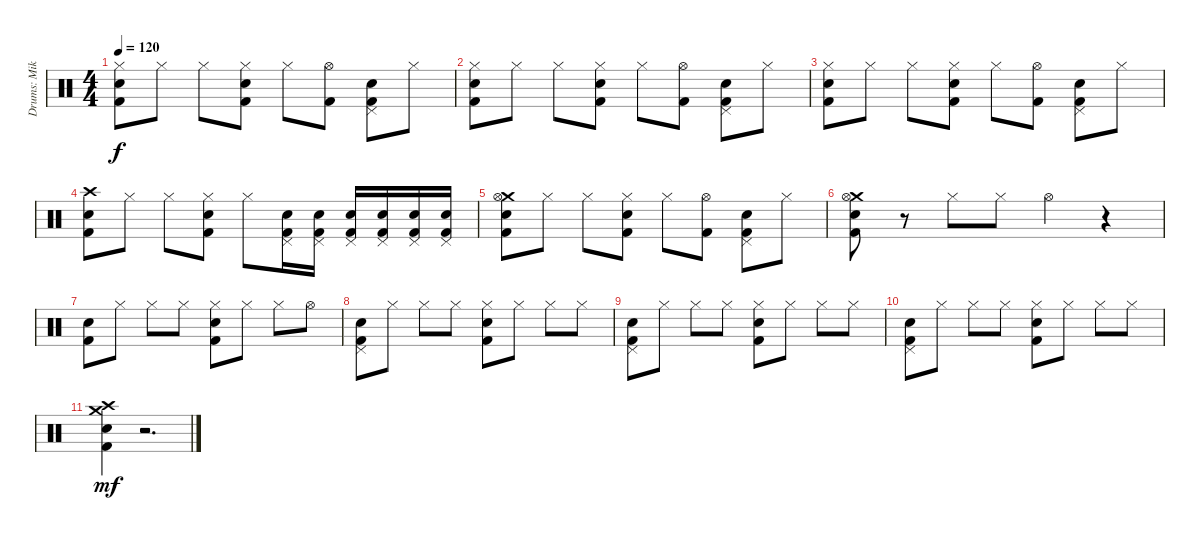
\track ("Drums: Mike Botts" "Drums: Mik") {instrument percussion}
\staff {score}
\articulation defaults
\ts (4 4)
\tempo 120
\clef neutral
\ks c
("Hi-Hat (closed)" "Snare (hit) 2" "Kick (hit) 2").8{dy f} "Hi-Hat (closed)".8 "Hi-Hat (closed)".8 ("Hi-Hat (closed)" "Snare (hit) 2" "Kick (hit) 2").8 "Hi-Hat (closed)".8 ("Hi-Hat (open)" "Kick (hit) 2").8 ("Pedal Hi-Hat (hit)" "Snare (hit) 2" "Kick (hit) 2").8 "Hi-Hat (closed)".8 |
("Hi-Hat (closed)" "Snare (hit) 2" "Kick (hit) 2").8 "Hi-Hat (closed)".8 "Hi-Hat (closed)".8 ("Hi-Hat (closed)" "Snare (hit) 2" "Kick (hit) 2").8 "Hi-Hat (closed)".8 ("Hi-Hat (open)" "Kick (hit) 2").8 ("Pedal Hi-Hat (hit)" "Snare (hit) 2" "Kick (hit) 2").8 "Hi-Hat (closed)".8 |
("Hi-Hat (closed)" "Snare (hit) 2" "Kick (hit) 2").8 "Hi-Hat (closed)".8 "Hi-Hat (closed)".8 ("Hi-Hat (closed)" "Snare (hit) 2" "Kick (hit) 2").8 "Hi-Hat (closed)".8 ("Hi-Hat (open)" "Kick (hit) 2").8 ("Pedal Hi-Hat (hit)" "Snare (hit) 2" "Kick (hit) 2").8 "Hi-Hat (closed)".8 |
("Crash high (hit)" "Snare (hit) 2" "Kick (hit) 2").8 "Hi-Hat (closed)".8 "Hi-Hat (closed)".8 ("Hi-Hat (closed)" "Snare (hit) 2" "Kick (hit) 2").8 "Hi-Hat (closed)".8 ("Pedal Hi-Hat (hit)" "Snare (hit) 2" "Kick (hit) 2").16 ("Pedal Hi-Hat (hit)" "Snare (hit) 2" "Kick (hit) 2").16 ("Pedal Hi-Hat (hit)" "Snare (hit) 2" "Kick (hit) 2").16 ("Pedal Hi-Hat (hit)" "Snare (hit) 2" "Kick (hit) 2").16 ("Pedal Hi-Hat (hit)" "Snare (hit) 2" "Kick (hit) 2").16 ("Pedal Hi-Hat (hit)" "Snare (hit) 2" "Kick (hit) 2").16 |
("Crash medium (hit)" "Hi-Hat (open)" "Snare (hit) 2" "Kick (hit) 2").8 "Hi-Hat (closed)".8 "Hi-Hat (closed)".8 ("Hi-Hat (closed)" "Snare (hit) 2" "Kick (hit) 2").8 "Hi-Hat (closed)".8 ("Hi-Hat (open)" "Kick (hit) 2").8 ("Pedal Hi-Hat (hit)" "Snare (hit) 2" "Kick (hit) 2").8 "Hi-Hat (closed)".8 |
("Crash medium (hit)" "Hi-Hat (open)" "Snare (hit) 2" "Kick (hit) 2").8 r.8 "Hi-Hat (closed)".8 "Hi-Hat (closed)".8 "Hi-Hat (open)".4 r.4 |
("Snare (hit) 2" "Kick (hit) 2").8 "Hi-Hat (closed)".8 "Hi-Hat (closed)".8 "Hi-Hat (closed)".8 ("Hi-Hat (closed)" "Electric Snare (hit)" "Kick (hit) 2").8 "Hi-Hat (closed)".8 "Hi-Hat (closed)".8 "Hi-Hat (open)".8 |
("Pedal Hi-Hat (hit)" "Snare (hit) 2" "Kick (hit) 2").8 "Hi-Hat (closed)".8 "Hi-Hat (closed)".8 "Hi-Hat (closed)".8 ("Hi-Hat (closed)" "Electric Snare (hit)" "Kick (hit) 2").8 "Hi-Hat (closed)".8 "Hi-Hat (closed)".8 "Hi-Hat (closed)".8 |
("Pedal Hi-Hat (hit)" "Snare (hit) 2" "Kick (hit) 2").8 "Hi-Hat (closed)".8 "Hi-Hat (closed)".8 "Hi-Hat (closed)".8 ("Hi-Hat (closed)" "Electric Snare (hit)" "Kick (hit) 2").8 "Hi-Hat (closed)".8 "Hi-Hat (closed)".8 "Hi-Hat (closed)".8 |
("Pedal Hi-Hat (hit)" "Snare (hit) 2" "Kick (hit) 2").8 "Hi-Hat (closed)".8 "Hi-Hat (closed)".8 "Hi-Hat (closed)".8 ("Hi-Hat (closed)" "Electric Snare (hit)" "Kick (hit) 2").8 "Hi-Hat (closed)".8 "Hi-Hat (closed)".8 "Hi-Hat (closed)".8 |
("Crash high (hit)" "Crash medium (hit)" "Snare (hit) 2" "Kick (hit) 2").4{dy mf} r.2{d}
